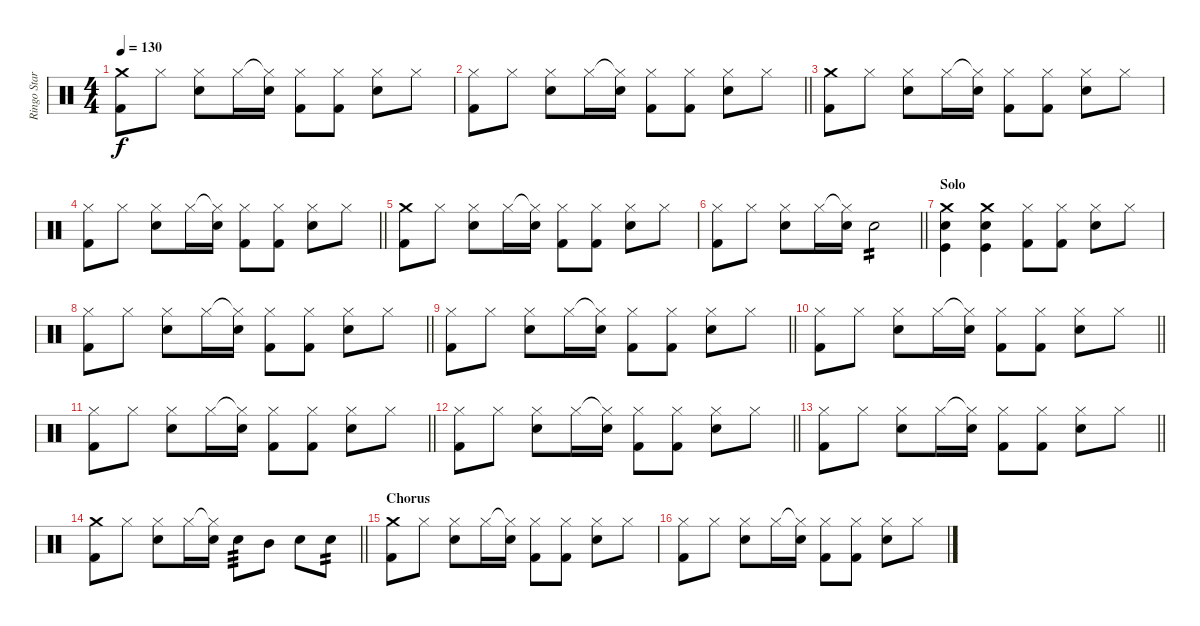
\track ("Ringo Starr" "Ringo Star") {instrument percussion}
\staff {score}
\articulation defaults
\ts (4 4)
\tempo 130
\clef neutral
\ks c
("Crash medium (hit)" "Kick (hit) 2").8{dy f} "Hi-Hat (closed)".8 ("Hi-Hat (closed)" "Snare (hit) 2").8 "Hi-Hat (closed)".16 ("Hi-Hat (closed)"{t} "Snare (hit) 2").16 ("Hi-Hat (closed)" "Kick (hit) 2").8 ("Hi-Hat (closed)" "Kick (hit) 2").8 ("Hi-Hat (closed)" "Snare (hit) 2").8 "Hi-Hat (closed)".8 |
\barLineRight lightlight
("Hi-Hat (closed)" "Kick (hit) 2").8 "Hi-Hat (closed)".8 ("Hi-Hat (closed)" "Snare (hit) 2").8 "Hi-Hat (closed)".16 ("Hi-Hat (closed)"{t} "Snare (hit) 2").16 ("Hi-Hat (closed)" "Kick (hit) 2").8 ("Hi-Hat (closed)" "Kick (hit) 2").8 ("Hi-Hat (closed)" "Snare (hit) 2").8 "Hi-Hat (closed)".8 |
("Crash medium (hit)" "Kick (hit) 2").8 "Hi-Hat (closed)".8 ("Hi-Hat (closed)" "Snare (hit) 2").8 "Hi-Hat (closed)".16 ("Hi-Hat (closed)"{t} "Snare (hit) 2").16 ("Hi-Hat (closed)" "Kick (hit) 2").8 ("Hi-Hat (closed)" "Kick (hit) 2").8 ("Hi-Hat (closed)" "Snare (hit) 2").8 "Hi-Hat (closed)".8 |
\barLineRight lightlight
("Hi-Hat (closed)" "Kick (hit) 2").8 "Hi-Hat (closed)".8 ("Hi-Hat (closed)" "Snare (hit) 2").8 "Hi-Hat (closed)".16 ("Hi-Hat (closed)"{t} "Snare (hit) 2").16 ("Hi-Hat (closed)" "Kick (hit) 2").8 ("Hi-Hat (closed)" "Kick (hit) 2").8 ("Hi-Hat (closed)" "Snare (hit) 2").8 "Hi-Hat (closed)".8 |
("Crash medium (hit)" "Kick (hit) 2").8 "Hi-Hat (closed)".8 ("Hi-Hat (closed)" "Snare (hit) 2").8 "Hi-Hat (closed)".16 ("Hi-Hat (closed)"{t} "Snare (hit) 2").16 ("Hi-Hat (closed)" "Kick (hit) 2").8 ("Hi-Hat (closed)" "Kick (hit) 2").8 ("Hi-Hat (closed)" "Snare (hit) 2").8 "Hi-Hat (closed)".8 |
\barLineRight lightlight
("Hi-Hat (closed)" "Kick (hit) 2").8 "Hi-Hat (closed)".8 ("Hi-Hat (closed)" "Snare (hit) 2").8 "Hi-Hat (closed)".16 ("Hi-Hat (closed)"{t} "Snare (hit) 2").16 "Snare (hit) 2".2{tp 2} |
\section ("" "Solo")
("Crash medium (hit)" "Snare (hit) 2" "Kick (hit)").4 ("Crash medium (hit)" "Snare (hit) 2" "Kick (hit)").4 ("Hi-Hat (closed)" "Kick (hit) 2").8 ("Hi-Hat (closed)" "Kick (hit) 2").8 ("Hi-Hat (closed)" "Snare (hit) 2").8 "Hi-Hat (closed)".8 |
\barLineRight lightlight
("Hi-Hat (closed)" "Kick (hit) 2").8 "Hi-Hat (closed)".8 ("Hi-Hat (closed)" "Snare (hit) 2").8 "Hi-Hat (closed)".16 ("Hi-Hat (closed)"{t} "Snare (hit) 2").16 ("Hi-Hat (closed)" "Kick (hit) 2").8 ("Hi-Hat (closed)" "Kick (hit) 2").8 ("Hi-Hat (closed)" "Snare (hit) 2").8 "Hi-Hat (closed)".8 |
\barLineRight lightlight
("Hi-Hat (closed)" "Kick (hit) 2").8 "Hi-Hat (closed)".8 ("Hi-Hat (closed)" "Snare (hit) 2").8 "Hi-Hat (closed)".16 ("Hi-Hat (closed)"{t} "Snare (hit) 2").16 ("Hi-Hat (closed)" "Kick (hit) 2").8 ("Hi-Hat (closed)" "Kick (hit) 2").8 ("Hi-Hat (closed)" "Snare (hit) 2").8 "Hi-Hat (closed)".8 |
\barLineRight lightlight
("Hi-Hat (closed)" "Kick (hit) 2").8 "Hi-Hat (closed)".8 ("Hi-Hat (closed)" "Snare (hit) 2").8 "Hi-Hat (closed)".16 ("Hi-Hat (closed)"{t} "Snare (hit) 2").16 ("Hi-Hat (closed)" "Kick (hit) 2").8 ("Hi-Hat (closed)" "Kick (hit) 2").8 ("Hi-Hat (closed)" "Snare (hit) 2").8 "Hi-Hat (closed)".8 |
\barLineRight lightlight
("Hi-Hat (closed)" "Kick (hit) 2").8 "Hi-Hat (closed)".8 ("Hi-Hat (closed)" "Snare (hit) 2").8 "Hi-Hat (closed)".16 ("Hi-Hat (closed)"{t} "Snare (hit) 2").16 ("Hi-Hat (closed)" "Kick (hit) 2").8 ("Hi-Hat (closed)" "Kick (hit) 2").8 ("Hi-Hat (closed)" "Snare (hit) 2").8 "Hi-Hat (closed)".8 |
\barLineRight lightlight
("Hi-Hat (closed)" "Kick (hit) 2").8 "Hi-Hat (closed)".8 ("Hi-Hat (closed)" "Snare (hit) 2").8 "Hi-Hat (closed)".16 ("Hi-Hat (closed)"{t} "Snare (hit) 2").16 ("Hi-Hat (closed)" "Kick (hit) 2").8 ("Hi-Hat (closed)" "Kick (hit) 2").8 ("Hi-Hat (closed)" "Snare (hit) 2").8 "Hi-Hat (closed)".8 |
\barLineRight lightlight
("Hi-Hat (closed)" "Kick (hit) 2").8 "Hi-Hat (closed)".8 ("Hi-Hat (closed)" "Snare (hit) 2").8 "Hi-Hat (closed)".16 ("Hi-Hat (closed)"{t} "Snare (hit) 2").16 ("Hi-Hat (closed)" "Kick (hit) 2").8 ("Hi-Hat (closed)" "Kick (hit) 2").8 ("Hi-Hat (closed)" "Snare (hit) 2").8 "Hi-Hat (closed)".8 |
\barLineRight lightlight
("Crash medium (hit)" "Kick (hit) 2").8 "Hi-Hat (closed)".8 ("Hi-Hat (closed)" "Snare (hit) 2").8 "Hi-Hat (closed)".16 ("Hi-Hat (closed)"{t} "Snare (hit) 2").16 "Snare (hit) 2".8{tp 3} "Mid Tom (hit)".8 "Snare (hit) 2".8 "Snare (hit) 2".8{tp 2} |
\section ("" "Chorus")
("Crash medium (hit)" "Kick (hit) 2").8 "Hi-Hat (closed)".8 ("Hi-Hat (closed)" "Snare (hit) 2").8 "Hi-Hat (closed)".16 ("Hi-Hat (closed)"{t} "Snare (hit) 2").16 ("Hi-Hat (closed)" "Kick (hit) 2").8 ("Hi-Hat (closed)" "Kick (hit) 2").8 ("Hi-Hat (closed)" "Snare (hit) 2").8 "Hi-Hat (closed)".8 |
("Hi-Hat (closed)" "Kick (hit) 2").8 "Hi-Hat (closed)".8 ("Hi-Hat (closed)" "Snare (hit) 2").8 "Hi-Hat (closed)".16 ("Hi-Hat (closed)"{t} "Snare (hit) 2").16 ("Hi-Hat (closed)" "Kick (hit) 2").8 ("Hi-Hat (closed)" "Kick (hit) 2").8 ("Hi-Hat (closed)" "Snare (hit) 2").8 "Hi-Hat (closed)".8
